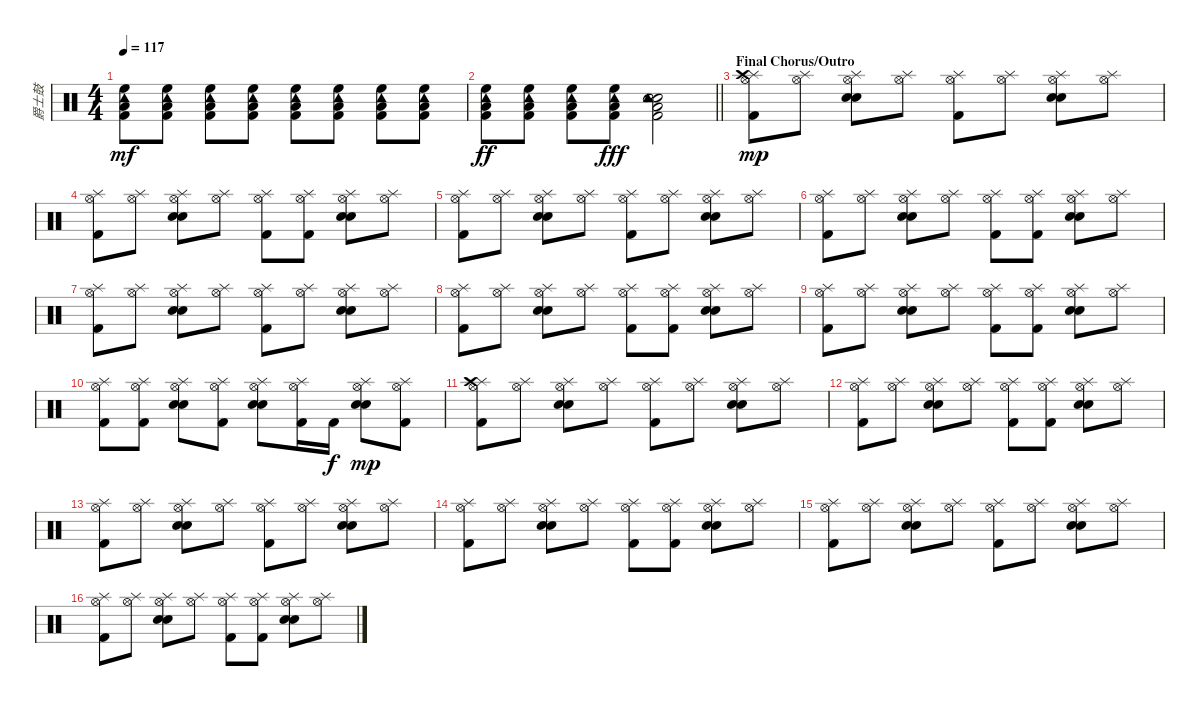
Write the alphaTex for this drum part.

\track ("爵士鼓" "爵士鼓") {instrument percussion}
\staff {score}
\articulation defaults
\ts (4 4)
\tempo 117
\clef neutral
\ks c
("High Floor Tom (hit)" "Tambourine (hit)" "Low Tom (hit)" "Kick (hit) 2").8{dy mf} ("High Floor Tom (hit)" "Tambourine (hit)" "Low Tom (hit)" "Kick (hit) 2").8 ("High Floor Tom (hit)" "Tambourine (hit)" "Low Tom (hit)" "Kick (hit) 2").8 ("High Floor Tom (hit)" "Tambourine (hit)" "Low Tom (hit)" "Kick (hit) 2").8 ("High Floor Tom (hit)" "Tambourine (hit)" "Low Tom (hit)" "Kick (hit) 2").8 ("High Floor Tom (hit)" "Tambourine (hit)" "Low Tom (hit)" "Kick (hit) 2").8 ("High Floor Tom (hit)" "Tambourine (hit)" "Low Tom (hit)" "Kick (hit) 2").8 ("High Floor Tom (hit)" "Tambourine (hit)" "Low Tom (hit)" "Kick (hit) 2").8 |
\barLineRight lightlight
("High Floor Tom (hit)" "Tambourine (hit)" "Low Tom (hit)" "Kick (hit) 2").8{dy ff} ("High Floor Tom (hit)" "Tambourine (hit)" "Low Tom (hit)" "Kick (hit) 2").8 ("High Floor Tom (hit)" "Tambourine (hit)" "Low Tom (hit)" "Kick (hit) 2").8 ("High Floor Tom (hit)" "Tambourine (hit)" "Low Tom (hit)" "Kick (hit) 2").8{dy fff} ("Snare (hit) 2" "Tambourine (hit)" "Low Tom (hit)" "Electric Snare (hit)" "Kick (hit) 2").2 |
\section ("" "Final Chorus/Outro")
("Splash (hit)" "Crash high (hit)" "Hi-Hat (open)" "Kick (hit) 2").8{dy mp} ("Splash (hit)" "Hi-Hat (open)").8 ("Splash (hit)" "Hi-Hat (open)" "Electric Snare (hit)" "Snare (hit) 2").8 ("Splash (hit)" "Hi-Hat (open)").8 ("Splash (hit)" "Hi-Hat (open)" "Kick (hit) 2").8 ("Splash (hit)" "Hi-Hat (open)").8 ("Splash (hit)" "Hi-Hat (open)" "Electric Snare (hit)" "Snare (hit) 2").8 ("Splash (hit)" "Hi-Hat (open)").8 |
("Splash (hit)" "Hi-Hat (open)" "Kick (hit) 2").8 ("Splash (hit)" "Hi-Hat (open)").8 ("Splash (hit)" "Hi-Hat (open)" "Electric Snare (hit)" "Snare (hit) 2").8 ("Splash (hit)" "Hi-Hat (open)").8 ("Splash (hit)" "Hi-Hat (open)" "Kick (hit) 2").8 ("Splash (hit)" "Hi-Hat (open)" "Kick (hit) 2").8 ("Splash (hit)" "Hi-Hat (open)" "Electric Snare (hit)" "Snare (hit) 2").8 ("Splash (hit)" "Hi-Hat (open)").8 |
("Splash (hit)" "Hi-Hat (open)" "Kick (hit) 2").8 ("Splash (hit)" "Hi-Hat (open)").8 ("Splash (hit)" "Hi-Hat (open)" "Electric Snare (hit)" "Snare (hit) 2").8 ("Splash (hit)" "Hi-Hat (open)").8 ("Splash (hit)" "Hi-Hat (open)" "Kick (hit) 2").8 ("Splash (hit)" "Hi-Hat (open)").8 ("Splash (hit)" "Hi-Hat (open)" "Electric Snare (hit)" "Snare (hit) 2").8 ("Splash (hit)" "Hi-Hat (open)").8 |
("Splash (hit)" "Hi-Hat (open)" "Kick (hit) 2").8 ("Splash (hit)" "Hi-Hat (open)").8 ("Splash (hit)" "Hi-Hat (open)" "Electric Snare (hit)" "Snare (hit) 2").8 ("Splash (hit)" "Hi-Hat (open)").8 ("Splash (hit)" "Hi-Hat (open)" "Kick (hit) 2").8 ("Splash (hit)" "Hi-Hat (open)" "Kick (hit) 2").8 ("Splash (hit)" "Hi-Hat (open)" "Electric Snare (hit)" "Snare (hit) 2").8 ("Splash (hit)" "Hi-Hat (open)").8 |
("Splash (hit)" "Hi-Hat (open)" "Kick (hit) 2").8 ("Splash (hit)" "Hi-Hat (open)").8 ("Splash (hit)" "Hi-Hat (open)" "Electric Snare (hit)" "Snare (hit) 2").8 ("Splash (hit)" "Hi-Hat (open)").8 ("Splash (hit)" "Hi-Hat (open)" "Kick (hit) 2").8 ("Splash (hit)" "Hi-Hat (open)").8 ("Splash (hit)" "Hi-Hat (open)" "Electric Snare (hit)" "Snare (hit) 2").8 ("Splash (hit)" "Hi-Hat (open)").8 |
("Splash (hit)" "Hi-Hat (open)" "Kick (hit) 2").8 ("Splash (hit)" "Hi-Hat (open)").8 ("Splash (hit)" "Hi-Hat (open)" "Electric Snare (hit)" "Snare (hit) 2").8 ("Splash (hit)" "Hi-Hat (open)").8 ("Splash (hit)" "Hi-Hat (open)" "Kick (hit) 2").8 ("Splash (hit)" "Hi-Hat (open)" "Kick (hit) 2").8 ("Splash (hit)" "Hi-Hat (open)" "Electric Snare (hit)" "Snare (hit) 2").8 ("Splash (hit)" "Hi-Hat (open)").8 |
("Splash (hit)" "Hi-Hat (open)" "Kick (hit) 2").8 ("Splash (hit)" "Hi-Hat (open)").8 ("Splash (hit)" "Hi-Hat (open)" "Electric Snare (hit)" "Snare (hit) 2").8 ("Splash (hit)" "Hi-Hat (open)").8 ("Splash (hit)" "Hi-Hat (open)" "Kick (hit) 2").8 ("Splash (hit)" "Hi-Hat (open)" "Kick (hit) 2").8 ("Splash (hit)" "Hi-Hat (open)" "Electric Snare (hit)" "Snare (hit) 2").8 ("Splash (hit)" "Hi-Hat (open)").8 |
("Splash (hit)" "Hi-Hat (open)" "Kick (hit) 2").8 ("Splash (hit)" "Hi-Hat (open)" "Kick (hit) 2").8 ("Splash (hit)" "Hi-Hat (open)" "Electric Snare (hit)" "Snare (hit) 2").8 ("Splash (hit)" "Hi-Hat (open)" "Kick (hit) 2").8 ("Splash (hit)" "Hi-Hat (open)" "Electric Snare (hit)" "Snare (hit) 2").8 ("Splash (hit)" "Hi-Hat (open)" "Kick (hit) 2").16 "Kick (hit) 2".16{dy f} ("Splash (hit)" "Hi-Hat (open)" "Electric Snare (hit)" "Snare (hit) 2").8{dy mp} ("Splash (hit)" "Hi-Hat (open)" "Kick (hit) 2").8 |
("Splash (hit)" "Crash high (hit)" "Hi-Hat (open)" "Kick (hit) 2").8 ("Splash (hit)" "Hi-Hat (open)").8 ("Splash (hit)" "Hi-Hat (open)" "Electric Snare (hit)" "Snare (hit) 2").8 ("Splash (hit)" "Hi-Hat (open)").8 ("Splash (hit)" "Hi-Hat (open)" "Kick (hit) 2").8 ("Splash (hit)" "Hi-Hat (open)").8 ("Splash (hit)" "Hi-Hat (open)" "Electric Snare (hit)" "Snare (hit) 2").8 ("Splash (hit)" "Hi-Hat (open)").8 |
("Splash (hit)" "Hi-Hat (open)" "Kick (hit) 2").8 ("Splash (hit)" "Hi-Hat (open)").8 ("Splash (hit)" "Hi-Hat (open)" "Electric Snare (hit)" "Snare (hit) 2").8 ("Splash (hit)" "Hi-Hat (open)").8 ("Splash (hit)" "Hi-Hat (open)" "Kick (hit) 2").8 ("Splash (hit)" "Hi-Hat (open)" "Kick (hit) 2").8 ("Splash (hit)" "Hi-Hat (open)" "Electric Snare (hit)" "Snare (hit) 2").8 ("Splash (hit)" "Hi-Hat (open)").8 |
("Splash (hit)" "Hi-Hat (open)" "Kick (hit) 2").8 ("Splash (hit)" "Hi-Hat (open)").8 ("Splash (hit)" "Hi-Hat (open)" "Electric Snare (hit)" "Snare (hit) 2").8 ("Splash (hit)" "Hi-Hat (open)").8 ("Splash (hit)" "Hi-Hat (open)" "Kick (hit) 2").8 ("Splash (hit)" "Hi-Hat (open)").8 ("Splash (hit)" "Hi-Hat (open)" "Electric Snare (hit)" "Snare (hit) 2").8 ("Splash (hit)" "Hi-Hat (open)").8 |
("Splash (hit)" "Hi-Hat (open)" "Kick (hit) 2").8 ("Splash (hit)" "Hi-Hat (open)").8 ("Splash (hit)" "Hi-Hat (open)" "Electric Snare (hit)" "Snare (hit) 2").8 ("Splash (hit)" "Hi-Hat (open)").8 ("Splash (hit)" "Hi-Hat (open)" "Kick (hit) 2").8 ("Splash (hit)" "Hi-Hat (open)" "Kick (hit) 2").8 ("Splash (hit)" "Hi-Hat (open)" "Electric Snare (hit)" "Snare (hit) 2").8 ("Splash (hit)" "Hi-Hat (open)").8 |
("Splash (hit)" "Hi-Hat (open)" "Kick (hit) 2").8 ("Splash (hit)" "Hi-Hat (open)").8 ("Splash (hit)" "Hi-Hat (open)" "Electric Snare (hit)" "Snare (hit) 2").8 ("Splash (hit)" "Hi-Hat (open)").8 ("Splash (hit)" "Hi-Hat (open)" "Kick (hit) 2").8 ("Splash (hit)" "Hi-Hat (open)").8 ("Splash (hit)" "Hi-Hat (open)" "Electric Snare (hit)" "Snare (hit) 2").8 ("Splash (hit)" "Hi-Hat (open)").8 |
("Splash (hit)" "Hi-Hat (open)" "Kick (hit) 2").8 ("Splash (hit)" "Hi-Hat (open)").8 ("Splash (hit)" "Hi-Hat (open)" "Electric Snare (hit)" "Snare (hit) 2").8 ("Splash (hit)" "Hi-Hat (open)").8 ("Splash (hit)" "Hi-Hat (open)" "Kick (hit) 2").8 ("Splash (hit)" "Hi-Hat (open)" "Kick (hit) 2").8 ("Splash (hit)" "Hi-Hat (open)" "Electric Snare (hit)" "Snare (hit) 2").8 ("Splash (hit)" "Hi-Hat (open)").8
